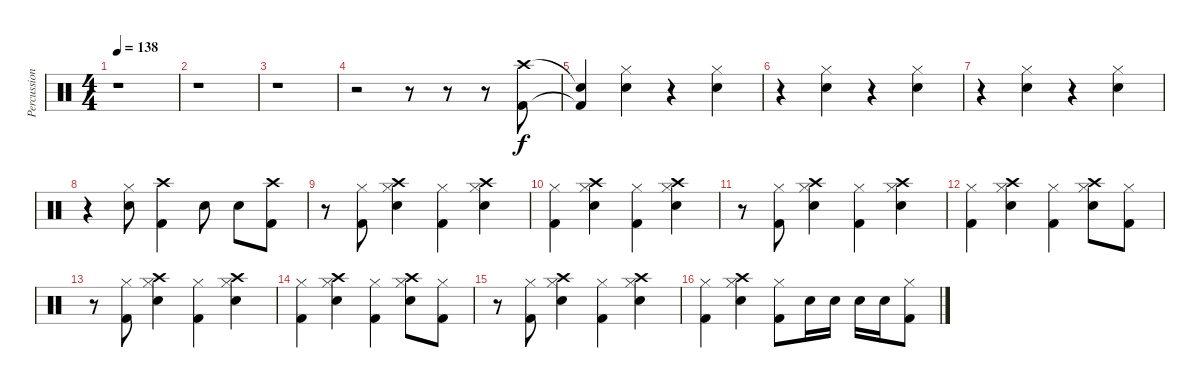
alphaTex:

\track ("Percussion" "Percussion") {instrument percussion}
\staff {score}
\articulation defaults
\ts (4 4)
\tempo 138
\clef neutral
\ks c
r.1{dy f} |
r.1 |
r.1 |
r.2 r.8 r.8 r.8 ("Crash high (hit)" "Kick (hit) 2").8 |
("Electric Snare (hit)"{t} "Kick (hit) 2"{t}).4 ("Hi-Hat (closed)" "Electric Snare (hit)").4 r.4 ("Hi-Hat (closed)" "Electric Snare (hit)").4 |
r.4 ("Hi-Hat (closed)" "Electric Snare (hit)").4 r.4 ("Hi-Hat (closed)" "Electric Snare (hit)").4 |
r.4 ("Hi-Hat (closed)" "Electric Snare (hit)").4 r.4 ("Hi-Hat (closed)" "Electric Snare (hit)").4 |
r.4 ("Hi-Hat (closed)" "Electric Snare (hit)").8 ("Crash high (hit)" "Kick (hit) 2").4 "Electric Snare (hit)".8 "Electric Snare (hit)".8 ("Crash high (hit)" "Kick (hit) 2").8 |
r.8 ("Hi-Hat (closed)" "Kick (hit) 2").8 ("Hi-Hat (closed)" "Crash high (hit)" "Electric Snare (hit)").4 ("Hi-Hat (closed)" "Kick (hit) 2").4 ("Hi-Hat (closed)" "Crash high (hit)" "Electric Snare (hit)").4 |
("Hi-Hat (closed)" "Kick (hit) 2").4 ("Hi-Hat (closed)" "Crash high (hit)" "Electric Snare (hit)").4 ("Hi-Hat (closed)" "Kick (hit) 2").4 ("Hi-Hat (closed)" "Crash high (hit)" "Electric Snare (hit)").4 |
r.8 ("Hi-Hat (closed)" "Kick (hit) 2").8 ("Hi-Hat (closed)" "Crash high (hit)" "Electric Snare (hit)").4 ("Hi-Hat (closed)" "Kick (hit) 2").4 ("Hi-Hat (closed)" "Crash high (hit)" "Electric Snare (hit)").4 |
("Hi-Hat (closed)" "Kick (hit) 2").4 ("Hi-Hat (closed)" "Crash high (hit)" "Electric Snare (hit)").4 ("Hi-Hat (closed)" "Kick (hit) 2").4 ("Hi-Hat (closed)" "Crash high (hit)" "Electric Snare (hit)").8 ("Hi-Hat (closed)" "Kick (hit) 2").8 |
r.8 ("Hi-Hat (closed)" "Kick (hit) 2").8 ("Hi-Hat (closed)" "Crash high (hit)" "Electric Snare (hit)").4 ("Hi-Hat (closed)" "Kick (hit) 2").4 ("Hi-Hat (closed)" "Crash high (hit)" "Electric Snare (hit)").4 |
("Hi-Hat (closed)" "Kick (hit) 2").4 ("Hi-Hat (closed)" "Crash high (hit)" "Electric Snare (hit)").4 ("Hi-Hat (closed)" "Kick (hit) 2").4 ("Hi-Hat (closed)" "Crash high (hit)" "Electric Snare (hit)").8 ("Hi-Hat (closed)" "Kick (hit) 2").8 |
r.8 ("Hi-Hat (closed)" "Kick (hit) 2").8 ("Hi-Hat (closed)" "Crash high (hit)" "Electric Snare (hit)").4 ("Hi-Hat (closed)" "Kick (hit) 2").4 ("Hi-Hat (closed)" "Crash high (hit)" "Electric Snare (hit)").4 |
("Hi-Hat (closed)" "Kick (hit) 2").4 ("Hi-Hat (closed)" "Crash high (hit)" "Electric Snare (hit)").4 ("Hi-Hat (closed)" "Kick (hit) 2").8 "Electric Snare (hit)".16 "Electric Snare (hit)".16 "Electric Snare (hit)".16 "Electric Snare (hit)".16 ("Hi-Hat (closed)" "Kick (hit) 2").8
